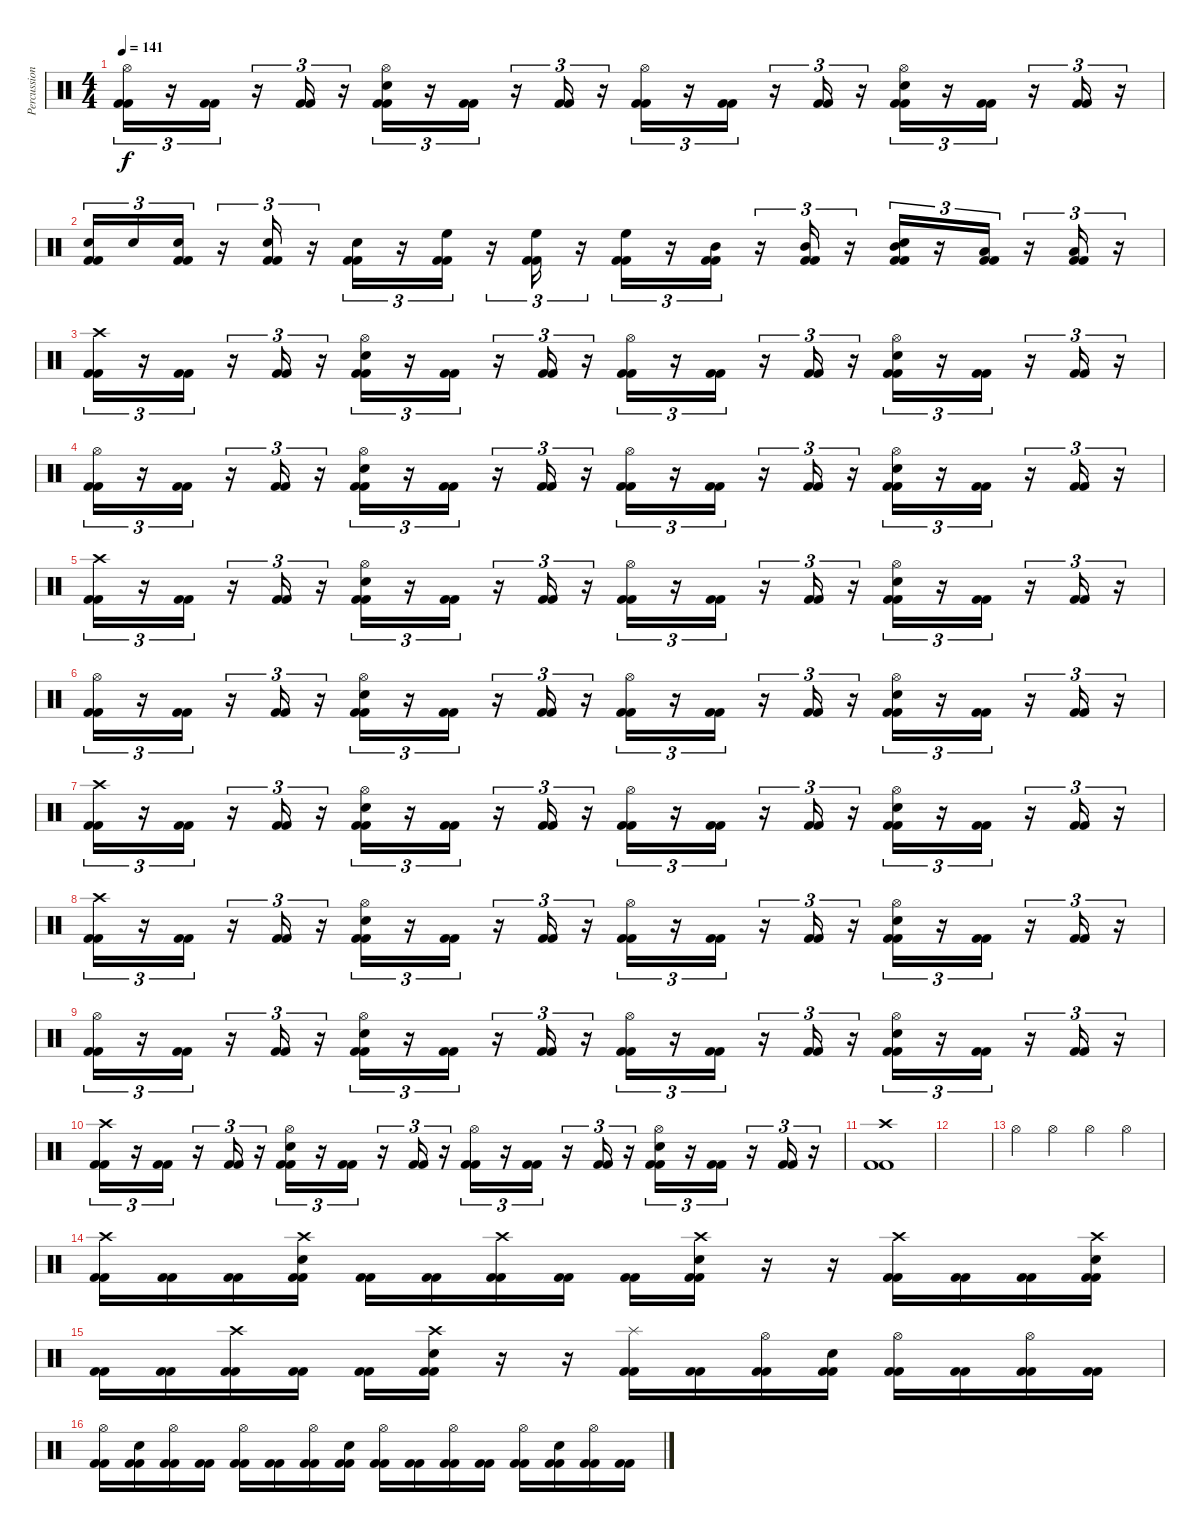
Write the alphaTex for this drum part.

\track ("Percussions" "Percussion") {instrument percussion}
\staff {score}
\articulation defaults
\ts (4 4)
\tempo 141
\clef neutral
\ks c
("Hi-Hat (open)" "Kick (hit) 2" "Kick (hit) 2").16{tu (3 2) dy f} r.16{tu (3 2)} ("Kick (hit) 2" "Kick (hit) 2").16{tu (3 2)} r.16{tu (3 2)} ("Kick (hit) 2" "Kick (hit) 2").16{tu (3 2)} r.16{tu (3 2)} ("Hi-Hat (open)" "Snare (hit) 2" "Kick (hit) 2" "Kick (hit) 2").16{tu (3 2)} r.16{tu (3 2)} ("Kick (hit) 2" "Kick (hit) 2").16{tu (3 2)} r.16{tu (3 2)} ("Kick (hit) 2" "Kick (hit) 2").16{tu (3 2)} r.16{tu (3 2)} ("Hi-Hat (open)" "Kick (hit) 2" "Kick (hit) 2").16{tu (3 2)} r.16{tu (3 2)} ("Kick (hit) 2" "Kick (hit) 2").16{tu (3 2)} r.16{tu (3 2)} ("Kick (hit) 2" "Kick (hit) 2").16{tu (3 2)} r.16{tu (3 2)} ("Hi-Hat (open)" "Snare (hit) 2" "Kick (hit) 2" "Kick (hit) 2").16{tu (3 2)} r.16{tu (3 2)} ("Kick (hit) 2" "Kick (hit) 2").16{tu (3 2)} r.16{tu (3 2)} ("Kick (hit) 2" "Kick (hit) 2").16{tu (3 2)} r.16{tu (3 2)} |
("Snare (hit) 2" "Kick (hit) 2" "Kick (hit) 2").16{tu (3 2)} "Snare (hit) 2".16{tu (3 2)} ("Snare (hit) 2" "Kick (hit) 2" "Kick (hit) 2").16{tu (3 2)} r.16{tu (3 2)} ("Snare (hit) 2" "Kick (hit) 2" "Kick (hit) 2").16{tu (3 2)} r.16{tu (3 2)} ("Snare (hit) 2" "Kick (hit) 2" "Kick (hit) 2").16{tu (3 2)} r.16{tu (3 2)} ("High Floor Tom (hit)" "Kick (hit) 2" "Kick (hit) 2").16{tu (3 2)} r.16{tu (3 2)} ("High Floor Tom (hit)" "Kick (hit) 2" "Kick (hit) 2").16{tu (3 2)} r.16{tu (3 2)} ("High Floor Tom (hit)" "Kick (hit) 2" "Kick (hit) 2").16{tu (3 2)} r.16{tu (3 2)} ("Mid Tom (hit)" "Kick (hit) 2" "Kick (hit) 2").16{tu (3 2)} r.16{tu (3 2)} ("Mid Tom (hit)" "Kick (hit) 2" "Kick (hit) 2").16{tu (3 2)} r.16{tu (3 2)} ("Mid Tom (hit)" "Snare (hit) 2" "Kick (hit) 2" "Kick (hit) 2").16{tu (3 2)} r.16{tu (3 2)} ("Low Tom (hit)" "Kick (hit) 2" "Kick (hit) 2").16{tu (3 2)} r.16{tu (3 2)} ("Low Tom (hit)" "Kick (hit) 2" "Kick (hit) 2").16{tu (3 2)} r.16{tu (3 2)} |
("Crash high (hit)" "Kick (hit) 2" "Kick (hit) 2").16{tu (3 2)} r.16{tu (3 2)} ("Kick (hit) 2" "Kick (hit) 2").16{tu (3 2)} r.16{tu (3 2)} ("Kick (hit) 2" "Kick (hit) 2").16{tu (3 2)} r.16{tu (3 2)} ("Hi-Hat (open)" "Snare (hit) 2" "Kick (hit) 2" "Kick (hit) 2").16{tu (3 2)} r.16{tu (3 2)} ("Kick (hit) 2" "Kick (hit) 2").16{tu (3 2)} r.16{tu (3 2)} ("Kick (hit) 2" "Kick (hit) 2").16{tu (3 2)} r.16{tu (3 2)} ("Hi-Hat (open)" "Kick (hit) 2" "Kick (hit) 2").16{tu (3 2)} r.16{tu (3 2)} ("Kick (hit) 2" "Kick (hit) 2").16{tu (3 2)} r.16{tu (3 2)} ("Kick (hit) 2" "Kick (hit) 2").16{tu (3 2)} r.16{tu (3 2)} ("Hi-Hat (open)" "Snare (hit) 2" "Kick (hit) 2" "Kick (hit) 2").16{tu (3 2)} r.16{tu (3 2)} ("Kick (hit) 2" "Kick (hit) 2").16{tu (3 2)} r.16{tu (3 2)} ("Kick (hit) 2" "Kick (hit) 2").16{tu (3 2)} r.16{tu (3 2)} |
("Hi-Hat (open)" "Kick (hit) 2" "Kick (hit) 2").16{tu (3 2)} r.16{tu (3 2)} ("Kick (hit) 2" "Kick (hit) 2").16{tu (3 2)} r.16{tu (3 2)} ("Kick (hit) 2" "Kick (hit) 2").16{tu (3 2)} r.16{tu (3 2)} ("Hi-Hat (open)" "Snare (hit) 2" "Kick (hit) 2" "Kick (hit) 2").16{tu (3 2)} r.16{tu (3 2)} ("Kick (hit) 2" "Kick (hit) 2").16{tu (3 2)} r.16{tu (3 2)} ("Kick (hit) 2" "Kick (hit) 2").16{tu (3 2)} r.16{tu (3 2)} ("Hi-Hat (open)" "Kick (hit) 2" "Kick (hit) 2").16{tu (3 2)} r.16{tu (3 2)} ("Kick (hit) 2" "Kick (hit) 2").16{tu (3 2)} r.16{tu (3 2)} ("Kick (hit) 2" "Kick (hit) 2").16{tu (3 2)} r.16{tu (3 2)} ("Hi-Hat (open)" "Snare (hit) 2" "Kick (hit) 2" "Kick (hit) 2").16{tu (3 2)} r.16{tu (3 2)} ("Kick (hit) 2" "Kick (hit) 2").16{tu (3 2)} r.16{tu (3 2)} ("Kick (hit) 2" "Kick (hit) 2").16{tu (3 2)} r.16{tu (3 2)} |
("Crash high (hit)" "Kick (hit) 2" "Kick (hit) 2").16{tu (3 2)} r.16{tu (3 2)} ("Kick (hit) 2" "Kick (hit) 2").16{tu (3 2)} r.16{tu (3 2)} ("Kick (hit) 2" "Kick (hit) 2").16{tu (3 2)} r.16{tu (3 2)} ("Hi-Hat (open)" "Snare (hit) 2" "Kick (hit) 2" "Kick (hit) 2").16{tu (3 2)} r.16{tu (3 2)} ("Kick (hit) 2" "Kick (hit) 2").16{tu (3 2)} r.16{tu (3 2)} ("Kick (hit) 2" "Kick (hit) 2").16{tu (3 2)} r.16{tu (3 2)} ("Hi-Hat (open)" "Kick (hit) 2" "Kick (hit) 2").16{tu (3 2)} r.16{tu (3 2)} ("Kick (hit) 2" "Kick (hit) 2").16{tu (3 2)} r.16{tu (3 2)} ("Kick (hit) 2" "Kick (hit) 2").16{tu (3 2)} r.16{tu (3 2)} ("Hi-Hat (open)" "Snare (hit) 2" "Kick (hit) 2" "Kick (hit) 2").16{tu (3 2)} r.16{tu (3 2)} ("Kick (hit) 2" "Kick (hit) 2").16{tu (3 2)} r.16{tu (3 2)} ("Kick (hit) 2" "Kick (hit) 2").16{tu (3 2)} r.16{tu (3 2)} |
("Hi-Hat (open)" "Kick (hit) 2" "Kick (hit) 2").16{tu (3 2)} r.16{tu (3 2)} ("Kick (hit) 2" "Kick (hit) 2").16{tu (3 2)} r.16{tu (3 2)} ("Kick (hit) 2" "Kick (hit) 2").16{tu (3 2)} r.16{tu (3 2)} ("Hi-Hat (open)" "Snare (hit) 2" "Kick (hit) 2" "Kick (hit) 2").16{tu (3 2)} r.16{tu (3 2)} ("Kick (hit) 2" "Kick (hit) 2").16{tu (3 2)} r.16{tu (3 2)} ("Kick (hit) 2" "Kick (hit) 2").16{tu (3 2)} r.16{tu (3 2)} ("Hi-Hat (open)" "Kick (hit) 2" "Kick (hit) 2").16{tu (3 2)} r.16{tu (3 2)} ("Kick (hit) 2" "Kick (hit) 2").16{tu (3 2)} r.16{tu (3 2)} ("Kick (hit) 2" "Kick (hit) 2").16{tu (3 2)} r.16{tu (3 2)} ("Hi-Hat (open)" "Snare (hit) 2" "Kick (hit) 2" "Kick (hit) 2").16{tu (3 2)} r.16{tu (3 2)} ("Kick (hit) 2" "Kick (hit) 2").16{tu (3 2)} r.16{tu (3 2)} ("Kick (hit) 2" "Kick (hit) 2").16{tu (3 2)} r.16{tu (3 2)} |
("Crash high (hit)" "Kick (hit) 2" "Kick (hit) 2").16{tu (3 2)} r.16{tu (3 2)} ("Kick (hit) 2" "Kick (hit) 2").16{tu (3 2)} r.16{tu (3 2)} ("Kick (hit) 2" "Kick (hit) 2").16{tu (3 2)} r.16{tu (3 2)} ("Hi-Hat (open)" "Snare (hit) 2" "Kick (hit) 2" "Kick (hit) 2").16{tu (3 2)} r.16{tu (3 2)} ("Kick (hit) 2" "Kick (hit) 2").16{tu (3 2)} r.16{tu (3 2)} ("Kick (hit) 2" "Kick (hit) 2").16{tu (3 2)} r.16{tu (3 2)} ("Hi-Hat (open)" "Kick (hit) 2" "Kick (hit) 2").16{tu (3 2)} r.16{tu (3 2)} ("Kick (hit) 2" "Kick (hit) 2").16{tu (3 2)} r.16{tu (3 2)} ("Kick (hit) 2" "Kick (hit) 2").16{tu (3 2)} r.16{tu (3 2)} ("Hi-Hat (open)" "Snare (hit) 2" "Kick (hit) 2" "Kick (hit) 2").16{tu (3 2)} r.16{tu (3 2)} ("Kick (hit) 2" "Kick (hit) 2").16{tu (3 2)} r.16{tu (3 2)} ("Kick (hit) 2" "Kick (hit) 2").16{tu (3 2)} r.16{tu (3 2)} |
("Crash high (hit)" "Kick (hit) 2" "Kick (hit) 2").16{tu (3 2)} r.16{tu (3 2)} ("Kick (hit) 2" "Kick (hit) 2").16{tu (3 2)} r.16{tu (3 2)} ("Kick (hit) 2" "Kick (hit) 2").16{tu (3 2)} r.16{tu (3 2)} ("Hi-Hat (open)" "Snare (hit) 2" "Kick (hit) 2" "Kick (hit) 2").16{tu (3 2)} r.16{tu (3 2)} ("Kick (hit) 2" "Kick (hit) 2").16{tu (3 2)} r.16{tu (3 2)} ("Kick (hit) 2" "Kick (hit) 2").16{tu (3 2)} r.16{tu (3 2)} ("Hi-Hat (open)" "Kick (hit) 2" "Kick (hit) 2").16{tu (3 2)} r.16{tu (3 2)} ("Kick (hit) 2" "Kick (hit) 2").16{tu (3 2)} r.16{tu (3 2)} ("Kick (hit) 2" "Kick (hit) 2").16{tu (3 2)} r.16{tu (3 2)} ("Hi-Hat (open)" "Snare (hit) 2" "Kick (hit) 2" "Kick (hit) 2").16{tu (3 2)} r.16{tu (3 2)} ("Kick (hit) 2" "Kick (hit) 2").16{tu (3 2)} r.16{tu (3 2)} ("Kick (hit) 2" "Kick (hit) 2").16{tu (3 2)} r.16{tu (3 2)} |
("Hi-Hat (open)" "Kick (hit) 2" "Kick (hit) 2").16{tu (3 2)} r.16{tu (3 2)} ("Kick (hit) 2" "Kick (hit) 2").16{tu (3 2)} r.16{tu (3 2)} ("Kick (hit) 2" "Kick (hit) 2").16{tu (3 2)} r.16{tu (3 2)} ("Hi-Hat (open)" "Snare (hit) 2" "Kick (hit) 2" "Kick (hit) 2").16{tu (3 2)} r.16{tu (3 2)} ("Kick (hit) 2" "Kick (hit) 2").16{tu (3 2)} r.16{tu (3 2)} ("Kick (hit) 2" "Kick (hit) 2").16{tu (3 2)} r.16{tu (3 2)} ("Hi-Hat (open)" "Kick (hit) 2" "Kick (hit) 2").16{tu (3 2)} r.16{tu (3 2)} ("Kick (hit) 2" "Kick (hit) 2").16{tu (3 2)} r.16{tu (3 2)} ("Kick (hit) 2" "Kick (hit) 2").16{tu (3 2)} r.16{tu (3 2)} ("Hi-Hat (open)" "Snare (hit) 2" "Kick (hit) 2" "Kick (hit) 2").16{tu (3 2)} r.16{tu (3 2)} ("Kick (hit) 2" "Kick (hit) 2").16{tu (3 2)} r.16{tu (3 2)} ("Kick (hit) 2" "Kick (hit) 2").16{tu (3 2)} r.16{tu (3 2)} |
("Crash high (hit)" "Kick (hit) 2" "Kick (hit) 2").16{tu (3 2)} r.16{tu (3 2)} ("Kick (hit) 2" "Kick (hit) 2").16{tu (3 2)} r.16{tu (3 2)} ("Kick (hit) 2" "Kick (hit) 2").16{tu (3 2)} r.16{tu (3 2)} ("Hi-Hat (open)" "Snare (hit) 2" "Kick (hit) 2" "Kick (hit) 2").16{tu (3 2)} r.16{tu (3 2)} ("Kick (hit) 2" "Kick (hit) 2").16{tu (3 2)} r.16{tu (3 2)} ("Kick (hit) 2" "Kick (hit) 2").16{tu (3 2)} r.16{tu (3 2)} ("Hi-Hat (open)" "Kick (hit) 2" "Kick (hit) 2").16{tu (3 2)} r.16{tu (3 2)} ("Kick (hit) 2" "Kick (hit) 2").16{tu (3 2)} r.16{tu (3 2)} ("Kick (hit) 2" "Kick (hit) 2").16{tu (3 2)} r.16{tu (3 2)} ("Hi-Hat (open)" "Snare (hit) 2" "Kick (hit) 2" "Kick (hit) 2").16{tu (3 2)} r.16{tu (3 2)} ("Kick (hit) 2" "Kick (hit) 2").16{tu (3 2)} r.16{tu (3 2)} ("Kick (hit) 2" "Kick (hit) 2").16{tu (3 2)} r.16{tu (3 2)} |
("Crash high (hit)" "Kick (hit) 2" "Kick (hit) 2").1 |
|
"Hi-Hat (open)".4 "Hi-Hat (open)".4 "Hi-Hat (open)".4 "Hi-Hat (open)".4 |
("Crash high (hit)" "Kick (hit) 2" "Kick (hit) 2").16 ("Kick (hit) 2" "Kick (hit) 2").16 ("Kick (hit) 2" "Kick (hit) 2").16 ("Crash high (hit)" "Snare (hit) 2" "Kick (hit) 2" "Kick (hit) 2").16 ("Kick (hit) 2" "Kick (hit) 2").16 ("Kick (hit) 2" "Kick (hit) 2").16 ("Crash high (hit)" "Kick (hit) 2" "Kick (hit) 2").16 ("Kick (hit) 2" "Kick (hit) 2").16 ("Kick (hit) 2" "Kick (hit) 2").16 ("Crash high (hit)" "Snare (hit) 2" "Kick (hit) 2" "Kick (hit) 2").16 r.16 r.16 ("Crash high (hit)" "Kick (hit) 2" "Kick (hit) 2").16 ("Kick (hit) 2" "Kick (hit) 2").16 ("Kick (hit) 2" "Kick (hit) 2").16 ("Crash high (hit)" "Snare (hit) 2" "Kick (hit) 2" "Kick (hit) 2").16 |
("Kick (hit) 2" "Kick (hit) 2").16 ("Kick (hit) 2" "Kick (hit) 2").16 ("Crash high (hit)" "Kick (hit) 2" "Kick (hit) 2").16 ("Kick (hit) 2" "Kick (hit) 2").16 ("Kick (hit) 2" "Kick (hit) 2").16 ("Crash high (hit)" "Snare (hit) 2" "Kick (hit) 2" "Kick (hit) 2").16 r.16 r.16 ("Splash (hit)" "Kick (hit) 2" "Kick (hit) 2").16 ("Kick (hit) 2" "Kick (hit) 2").16 ("Hi-Hat (open)" "Kick (hit) 2" "Kick (hit) 2").16 ("Snare (hit) 2" "Kick (hit) 2" "Kick (hit) 2").16 ("Hi-Hat (open)" "Kick (hit) 2" "Kick (hit) 2").16 ("Kick (hit) 2" "Kick (hit) 2").16 ("Hi-Hat (open)" "Kick (hit) 2" "Kick (hit) 2").16 ("Kick (hit) 2" "Kick (hit) 2").16 |
("Hi-Hat (open)" "Kick (hit) 2" "Kick (hit) 2").16 ("Snare (hit) 2" "Kick (hit) 2" "Kick (hit) 2").16 ("Hi-Hat (open)" "Kick (hit) 2" "Kick (hit) 2").16 ("Kick (hit) 2" "Kick (hit) 2").16 ("Hi-Hat (open)" "Kick (hit) 2" "Kick (hit) 2").16 ("Kick (hit) 2" "Kick (hit) 2").16 ("Hi-Hat (open)" "Kick (hit) 2" "Kick (hit) 2").16 ("Snare (hit) 2" "Kick (hit) 2" "Kick (hit) 2").16 ("Hi-Hat (open)" "Kick (hit) 2" "Kick (hit) 2").16 ("Kick (hit) 2" "Kick (hit) 2").16 ("Hi-Hat (open)" "Kick (hit) 2" "Kick (hit) 2").16 ("Kick (hit) 2" "Kick (hit) 2").16 ("Hi-Hat (open)" "Kick (hit) 2" "Kick (hit) 2").16 ("Snare (hit) 2" "Kick (hit) 2" "Kick (hit) 2").16 ("Hi-Hat (open)" "Kick (hit) 2" "Kick (hit) 2").16 ("Kick (hit) 2" "Kick (hit) 2").16
